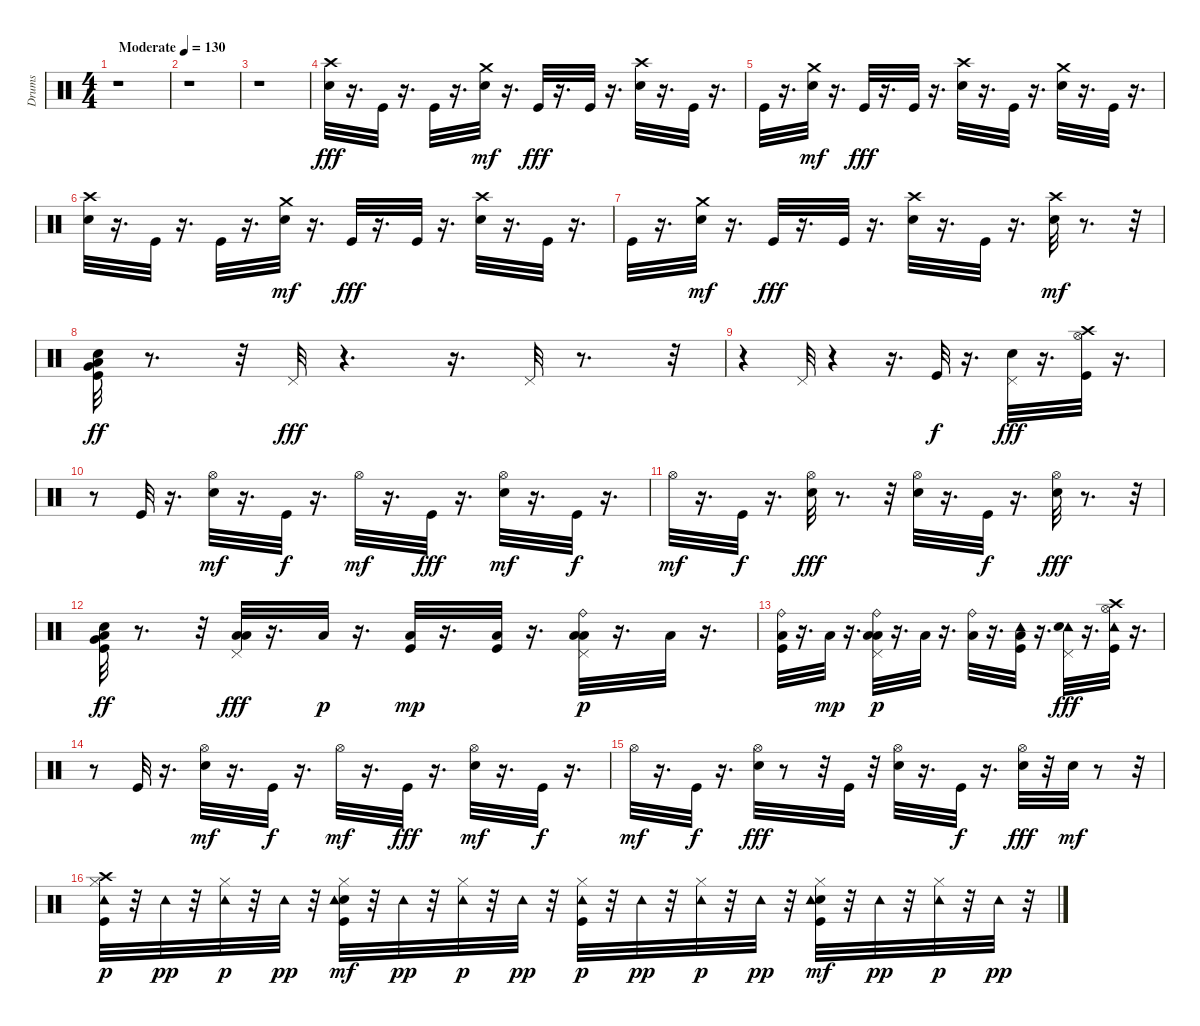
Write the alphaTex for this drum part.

\track ("Drums" "Drums") {instrument percussion}
\staff {score}
\articulation defaults
\ts (4 4)
\tempo (130 "Moderate")
\clef neutral
\ks c
r.1{dy fff} |
r.1 |
r.1 |
("Crash high (hit)" "Electric Snare (hit)").32 r.16{d} "Kick (hit)".32 r.16{d} "Kick (hit)".32 r.16{d} ("Electric Snare (hit)" "Crash medium (hit)").32{dy mf} r.16{d} "Kick (hit)".32{dy fff} r.16{d} "Kick (hit)".32 r.16{d} ("Crash high (hit)" "Electric Snare (hit)").32 r.16{d} "Kick (hit)".32 r.16{d} |
"Kick (hit)".32 r.16{d} ("Electric Snare (hit)" "Crash medium (hit)").32{dy mf} r.16{d} "Kick (hit)".32{dy fff} r.16{d} "Kick (hit)".32 r.16{d} ("Crash high (hit)" "Electric Snare (hit)").32 r.16{d} "Kick (hit)".32 r.16{d} ("Crash medium (hit)" "Electric Snare (hit)").32 r.16{d} "Kick (hit)".32 r.16{d} |
("Crash high (hit)" "Electric Snare (hit)").32 r.16{d} "Kick (hit)".32 r.16{d} "Kick (hit)".32 r.16{d} ("Electric Snare (hit)" "Crash medium (hit)").32{dy mf} r.16{d} "Kick (hit)".32{dy fff} r.16{d} "Kick (hit)".32 r.16{d} ("Crash high (hit)" "Electric Snare (hit)").32 r.16{d} "Kick (hit)".32 r.16{d} |
"Kick (hit)".32 r.16{d} ("Electric Snare (hit)" "Crash medium (hit)").32{dy mf} r.16{d} "Kick (hit)".32{dy fff} r.16{d} "Kick (hit)".32 r.16{d} ("Crash high (hit)" "Electric Snare (hit)").32 r.16{d} "Kick (hit)".32 r.16{d} ("Electric Snare (hit)" "Crash high (hit)").32{dy mf} r.8{d} r.32 |
("Kick (hit)" "Very Low Tom (hit)" "Low Floor Tom (hit)" "Electric Snare (hit)").32{dy ff} r.8{d} r.32 "Pedal Hi-Hat (hit)".32{dy fff} r.4{d} r.16{d} "Pedal Hi-Hat (hit)".32 r.8{d} r.32 |
r.4 "Pedal Hi-Hat (hit)".32 r.4 r.16{d} "Kick (hit)".32{dy f} r.16{d} ("Electric Snare (hit)" "Pedal Hi-Hat (hit)").32{dy fff} r.16{d} ("Hi-Hat (open)" "Crash high (hit)" "Kick (hit)").32 r.16{d} |
r.8 "Kick (hit)".32 r.16{d} ("Electric Snare (hit)" "Hi-Hat (open)").32{dy mf} r.16{d} "Kick (hit)".32{dy f} r.16{d} "Hi-Hat (open)".32{dy mf} r.16{d} "Kick (hit)".32{dy fff} r.16{d} ("Electric Snare (hit)" "Hi-Hat (open)").32{dy mf} r.16{d} "Kick (hit)".32{dy f} r.16{d} |
"Hi-Hat (open)".32{dy mf} r.16{d} "Kick (hit)".32{dy f} r.16{d} ("Hi-Hat (open)" "Electric Snare (hit)").32{dy fff} r.8{d} r.32 ("Hi-Hat (open)" "Electric Snare (hit)").32 r.16{d} "Kick (hit)".32{dy f} r.16{d} ("Hi-Hat (open)" "Electric Snare (hit)").32{dy fff} r.8{d} r.32 |
("Kick (hit)" "Very Low Tom (hit)" "Low Floor Tom (hit)" "Electric Snare (hit)").32{dy ff} r.8{d} r.32 ("Pedal Hi-Hat (hit)" "Low Floor Tom (hit)" "Low Tom (hit)").32{dy fff} r.16{d} "Low Floor Tom (hit)".32{dy p} r.16{d} ("Low Floor Tom (hit)" "Kick (hit)").32{dy mp} r.16{d} ("Kick (hit)" "Low Floor Tom (hit)").32 r.16{d} ("Pedal Hi-Hat (hit)" "Low Floor Tom (hit)" "Low Tom (hit)" "Ride (bell)").32{dy p} r.16{d} "Low Floor Tom (hit)".32 r.16{d} |
("Kick (hit)" "Low Floor Tom (hit)" "Ride (bell)").32 r.16{d} "Low Floor Tom (hit)".32{dy mp} r.16{d} ("Pedal Hi-Hat (hit)" "Low Floor Tom (hit)" "Low Tom (hit)" "Ride (bell)").32{dy p} r.16{d} "Low Floor Tom (hit)".32 r.16{d} ("Low Floor Tom (hit)" "Ride (bell)").32 r.16{d} ("Kick (hit)" "Low Floor Tom (hit)" "Tambourine (hit)").32 r.16{d} ("Pedal Hi-Hat (hit)" "Tambourine (hit)" "Electric Snare (hit)").32{dy fff} r.16{d} ("Tambourine (hit)" "Hi-Hat (open)" "Crash high (hit)" "Kick (hit)").32 r.16{d} |
r.8 "Kick (hit)".32 r.16{d} ("Electric Snare (hit)" "Hi-Hat (open)").32{dy mf} r.16{d} "Kick (hit)".32{dy f} r.16{d} "Hi-Hat (open)".32{dy mf} r.16{d} "Kick (hit)".32{dy fff} r.16{d} ("Electric Snare (hit)" "Hi-Hat (open)").32{dy mf} r.16{d} "Kick (hit)".32{dy f} r.16{d} |
"Hi-Hat (open)".32{dy mf} r.16{d} "Kick (hit)".32{dy f} r.16{d} ("Hi-Hat (open)" "Electric Snare (hit)").32{dy fff} r.8 r.32 "Kick (hit)".32 r.32 ("Hi-Hat (open)" "Electric Snare (hit)").32 r.16{d} "Kick (hit)".32{dy f} r.16{d} ("Hi-Hat (open)" "Electric Snare (hit)").32{dy fff} r.32 "Electric Snare (hit)".32{dy mf} r.8 r.32 |
("Kick (hit)" "Hi-Hat (closed)" "Crash high (hit)" "Tambourine (hit)").32{dy p} r.32 "Tambourine (hit)".32{dy pp} r.32 ("Hi-Hat (closed)" "Tambourine (hit)").32{dy p} r.32 "Tambourine (hit)".32{dy pp} r.32 ("Kick (hit)" "Electric Snare (hit)" "Hi-Hat (closed)" "Tambourine (hit)").32{dy mf} r.32 "Tambourine (hit)".32{dy pp} r.32 ("Hi-Hat (closed)" "Tambourine (hit)").32{dy p} r.32 "Tambourine (hit)".32{dy pp} r.32 ("Kick (hit)" "Hi-Hat (closed)" "Tambourine (hit)").32{dy p} r.32 "Tambourine (hit)".32{dy pp} r.32 ("Hi-Hat (closed)" "Tambourine (hit)").32{dy p} r.32 "Tambourine (hit)".32{dy pp} r.32 ("Kick (hit)" "Electric Snare (hit)" "Hi-Hat (closed)" "Tambourine (hit)").32{dy mf} r.32 "Tambourine (hit)".32{dy pp} r.32 ("Hi-Hat (closed)" "Tambourine (hit)").32{dy p} r.32 "Tambourine (hit)".32{dy pp} r.32
